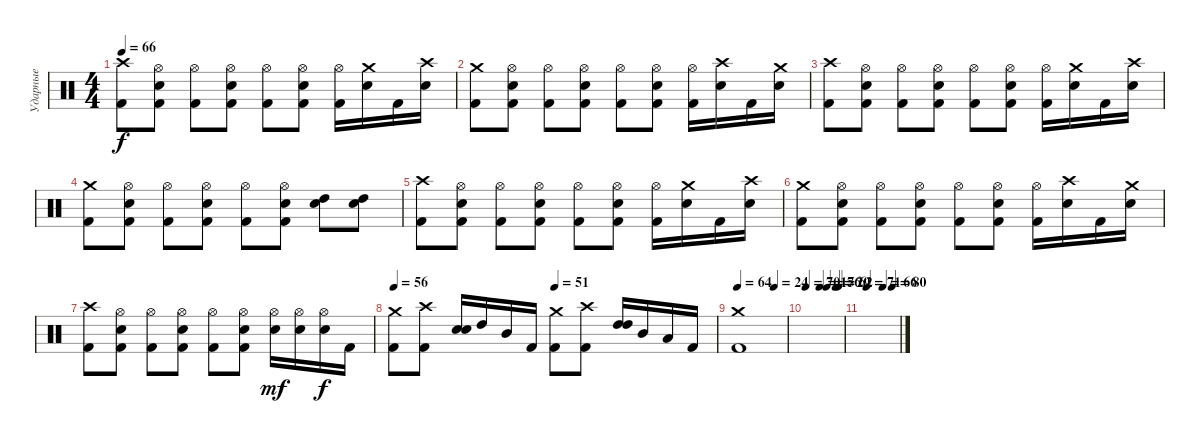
\track ("Ударные" "Ударные") {instrument percussion}
\staff {score}
\articulation defaults
\ts (4 4)
\tempo 66
\clef neutral
\ks c
("Crash high (hit)" "Kick (hit) 2").8{dy f} ("Hi-Hat (open)" "Snare (hit) 2" "Kick (hit) 2").8 ("Hi-Hat (open)" "Kick (hit) 2").8 ("Hi-Hat (open)" "Snare (hit) 2" "Kick (hit) 2").8 ("Hi-Hat (open)" "Kick (hit) 2").8 ("Hi-Hat (open)" "Snare (hit) 2" "Kick (hit) 2").8 ("Hi-Hat (open)" "Kick (hit) 2").16 ("Crash medium (hit)" "Snare (hit) 2").16 "Kick (hit) 2".16 ("Crash high (hit)" "Snare (hit) 2").16 |
("Crash medium (hit)" "Kick (hit) 2").8 ("Hi-Hat (open)" "Snare (hit) 2" "Kick (hit) 2").8 ("Hi-Hat (open)" "Kick (hit) 2").8 ("Hi-Hat (open)" "Snare (hit) 2" "Kick (hit) 2").8 ("Hi-Hat (open)" "Kick (hit) 2").8 ("Hi-Hat (open)" "Snare (hit) 2" "Kick (hit) 2").8 ("Hi-Hat (open)" "Kick (hit) 2").16 ("Crash high (hit)" "Snare (hit) 2").16 "Kick (hit) 2".16 ("Crash medium (hit)" "Snare (hit) 2").16 |
("Crash high (hit)" "Kick (hit) 2").8 ("Hi-Hat (open)" "Snare (hit) 2" "Kick (hit) 2").8 ("Hi-Hat (open)" "Kick (hit) 2").8 ("Hi-Hat (open)" "Snare (hit) 2" "Kick (hit) 2").8 ("Hi-Hat (open)" "Kick (hit) 2").8 ("Hi-Hat (open)" "Snare (hit) 2" "Kick (hit) 2").8 ("Hi-Hat (open)" "Kick (hit) 2").16 ("Crash medium (hit)" "Snare (hit) 2").16 "Kick (hit) 2".16 ("Crash high (hit)" "Snare (hit) 2").16 |
("Crash medium (hit)" "Kick (hit) 2").8 ("Hi-Hat (open)" "Snare (hit) 2" "Kick (hit) 2").8 ("Hi-Hat (open)" "Kick (hit) 2").8 ("Hi-Hat (open)" "Snare (hit) 2" "Kick (hit) 2").8 ("Hi-Hat (open)" "Kick (hit) 2").8 ("Hi-Hat (open)" "Snare (hit) 2" "Kick (hit) 2").8 ("High Tom (hit)" "Snare (hit) 2").8 ("High Tom (hit)" "Snare (hit) 2").8 |
("Crash high (hit)" "Kick (hit) 2").8 ("Hi-Hat (open)" "Snare (hit) 2" "Kick (hit) 2").8 ("Hi-Hat (open)" "Kick (hit) 2").8 ("Hi-Hat (open)" "Snare (hit) 2" "Kick (hit) 2").8 ("Hi-Hat (open)" "Kick (hit) 2").8 ("Hi-Hat (open)" "Snare (hit) 2" "Kick (hit) 2").8 ("Hi-Hat (open)" "Kick (hit) 2").16 ("Crash medium (hit)" "Snare (hit) 2").16 "Kick (hit) 2".16 ("Crash high (hit)" "Snare (hit) 2").16 |
("Crash medium (hit)" "Kick (hit) 2").8 ("Hi-Hat (open)" "Snare (hit) 2" "Kick (hit) 2").8 ("Hi-Hat (open)" "Kick (hit) 2").8 ("Hi-Hat (open)" "Snare (hit) 2" "Kick (hit) 2").8 ("Hi-Hat (open)" "Kick (hit) 2").8 ("Hi-Hat (open)" "Snare (hit) 2" "Kick (hit) 2").8 ("Hi-Hat (open)" "Kick (hit) 2").16 ("Crash high (hit)" "Snare (hit) 2").16 "Kick (hit) 2".16 ("Crash medium (hit)" "Snare (hit) 2").16 |
("Crash high (hit)" "Kick (hit) 2").8 ("Hi-Hat (open)" "Snare (hit) 2" "Kick (hit) 2").8 ("Hi-Hat (open)" "Kick (hit) 2").8 ("Hi-Hat (open)" "Snare (hit) 2" "Kick (hit) 2").8 ("Hi-Hat (open)" "Kick (hit) 2").8 ("Hi-Hat (open)" "Snare (hit) 2" "Kick (hit) 2").8 ("Hi-Hat (open)" "Snare (hit) 2").16{dy mf} ("Hi-Hat (open)" "Snare (hit) 2").16 ("Hi-Hat (open)" "Snare (hit) 2").16{dy f} "Kick (hit) 2".16 |
\tempo 56
\tempo (51 0.5)
("Crash medium (hit)" "Kick (hit) 2").8 ("Crash high (hit)" "Kick (hit) 2").8 ("Snare (hit) 2" "Snare (hit) 2").16{bd 120} "High Tom (hit)".16 "Mid Tom (hit)".16 "Kick (hit) 2".16 ("Crash medium (hit)" "Kick (hit) 2").8 ("Crash high (hit)" "Kick (hit) 2").8 ("High Tom (hit)" "High Tom (hit)").16{bd 120} "Mid Tom (hit)".16 "Low Tom (hit)".16 "Kick (hit) 2".16 |
\tempo 64
\tempo (24 0.75)
("Crash medium (hit)" "Kick (hit) 2").1 |
\tempo 70
\tempo (17 0.375)
\tempo (56 0.5625)
\tempo (29 0.8125)
\tempo (62 0.875)
|
\tempo (71 0.125)
\tempo (66 0.5625)
\tempo (80 0.8125)
